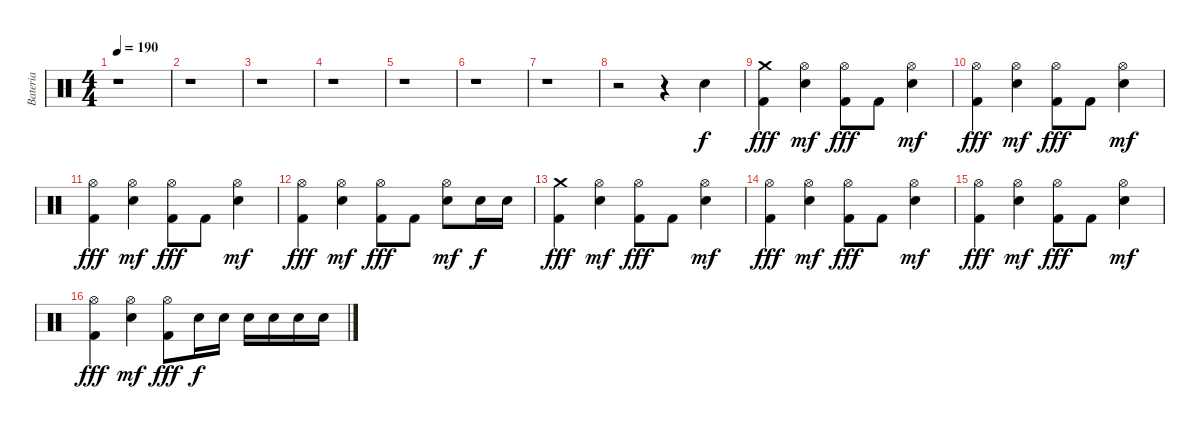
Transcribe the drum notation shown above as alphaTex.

\track ("Bateria" "Bateria") {instrument percussion}
\staff {score}
\articulation defaults
\ts (4 4)
\tempo 190
\clef neutral
\ks c
r.1{dy fff} |
r.1 |
r.1 |
r.1 |
r.1 |
r.1 |
r.1 |
r.2 r.4 "Electric Snare (hit)".4{dy f} |
("Crash medium (hit)" "Kick (hit) 2").4{dy fff} ("Hi-Hat (open)" "Electric Snare (hit)").4{dy mf} ("Hi-Hat (open)" "Kick (hit) 2").8{dy fff} "Kick (hit) 2".8 ("Hi-Hat (open)" "Electric Snare (hit)").4{dy mf} |
("Hi-Hat (open)" "Kick (hit) 2").4{dy fff} ("Hi-Hat (open)" "Electric Snare (hit)").4{dy mf} ("Hi-Hat (open)" "Kick (hit) 2").8{dy fff} "Kick (hit) 2".8 ("Hi-Hat (open)" "Electric Snare (hit)").4{dy mf} |
("Hi-Hat (open)" "Kick (hit) 2").4{dy fff} ("Hi-Hat (open)" "Electric Snare (hit)").4{dy mf} ("Hi-Hat (open)" "Kick (hit) 2").8{dy fff} "Kick (hit) 2".8 ("Hi-Hat (open)" "Electric Snare (hit)").4{dy mf} |
("Hi-Hat (open)" "Kick (hit) 2").4{dy fff} ("Hi-Hat (open)" "Electric Snare (hit)").4{dy mf} ("Hi-Hat (open)" "Kick (hit) 2").8{dy fff} "Kick (hit) 2".8 ("Hi-Hat (open)" "Electric Snare (hit)").8{dy mf} "Electric Snare (hit)".16{dy f} "Electric Snare (hit)".16 |
("Crash medium (hit)" "Kick (hit) 2").4{dy fff} ("Hi-Hat (open)" "Electric Snare (hit)").4{dy mf} ("Hi-Hat (open)" "Kick (hit) 2").8{dy fff} "Kick (hit) 2".8 ("Hi-Hat (open)" "Electric Snare (hit)").4{dy mf} |
("Hi-Hat (open)" "Kick (hit) 2").4{dy fff} ("Hi-Hat (open)" "Electric Snare (hit)").4{dy mf} ("Hi-Hat (open)" "Kick (hit) 2").8{dy fff} "Kick (hit) 2".8 ("Hi-Hat (open)" "Electric Snare (hit)").4{dy mf} |
("Hi-Hat (open)" "Kick (hit) 2").4{dy fff} ("Hi-Hat (open)" "Electric Snare (hit)").4{dy mf} ("Hi-Hat (open)" "Kick (hit) 2").8{dy fff} "Kick (hit) 2".8 ("Hi-Hat (open)" "Electric Snare (hit)").4{dy mf} |
("Hi-Hat (open)" "Kick (hit) 2").4{dy fff} ("Hi-Hat (open)" "Electric Snare (hit)").4{dy mf} ("Hi-Hat (open)" "Kick (hit) 2").8{dy fff} "Electric Snare (hit)".16{dy f} "Electric Snare (hit)".16 "Electric Snare (hit)".16 "Electric Snare (hit)".16 "Electric Snare (hit)".16 "Electric Snare (hit)".16
